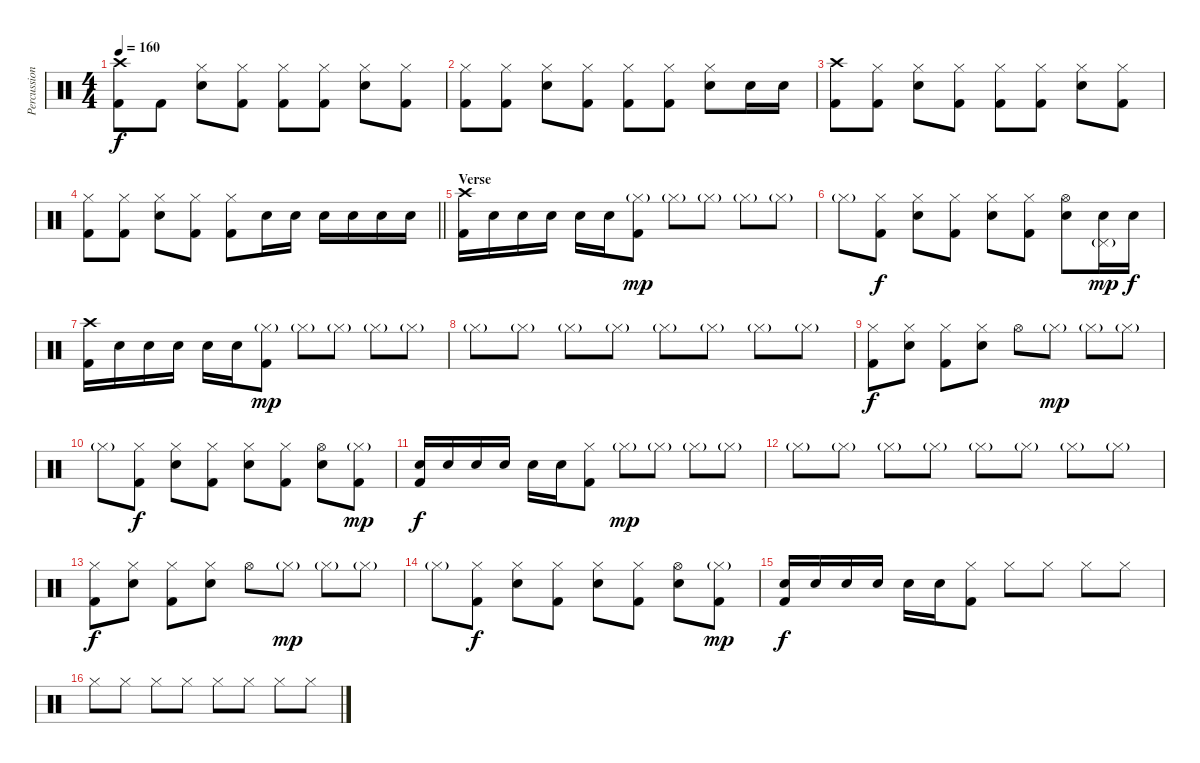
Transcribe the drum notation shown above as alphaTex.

\track ("Percussion" "Percussion") {instrument percussion}
\staff {score}
\articulation defaults
\ts (4 4)
\tempo 160
\clef neutral
\ks c
("Crash high (hit)" "Kick (hit) 2").8{dy f} "Kick (hit) 2".8 ("Hi-Hat (closed)" "Electric Snare (hit)").8 ("Hi-Hat (closed)" "Kick (hit) 2").8 ("Hi-Hat (closed)" "Kick (hit) 2").8 ("Hi-Hat (closed)" "Kick (hit) 2").8 ("Hi-Hat (closed)" "Electric Snare (hit)").8 ("Hi-Hat (closed)" "Kick (hit) 2").8 |
("Hi-Hat (closed)" "Kick (hit) 2").8 ("Hi-Hat (closed)" "Kick (hit) 2").8 ("Hi-Hat (closed)" "Electric Snare (hit)").8 ("Hi-Hat (closed)" "Kick (hit) 2").8 ("Hi-Hat (closed)" "Kick (hit) 2").8 ("Hi-Hat (closed)" "Kick (hit) 2").8 ("Hi-Hat (closed)" "Electric Snare (hit)").8 "Electric Snare (hit)".16 "Electric Snare (hit)".16 |
("Crash high (hit)" "Kick (hit) 2").8 ("Hi-Hat (closed)" "Kick (hit) 2").8 ("Hi-Hat (closed)" "Electric Snare (hit)").8 ("Hi-Hat (closed)" "Kick (hit) 2").8 ("Hi-Hat (closed)" "Kick (hit) 2").8 ("Hi-Hat (closed)" "Kick (hit) 2").8 ("Hi-Hat (closed)" "Electric Snare (hit)").8 ("Hi-Hat (closed)" "Kick (hit) 2").8 |
\barLineRight lightlight
("Hi-Hat (closed)" "Kick (hit) 2").8 ("Hi-Hat (closed)" "Kick (hit) 2").8 ("Hi-Hat (closed)" "Electric Snare (hit)").8 ("Hi-Hat (closed)" "Kick (hit) 2").8 ("Hi-Hat (closed)" "Kick (hit) 2").8 "Electric Snare (hit)".16 "Electric Snare (hit)".16 "Electric Snare (hit)".16 "Electric Snare (hit)".16 "Electric Snare (hit)".16 "Electric Snare (hit)".16 |
\section ("" "Verse")
("Crash high (hit)" "Kick (hit) 2").16 "Electric Snare (hit)".16 "Electric Snare (hit)".16 "Electric Snare (hit)".16 "Electric Snare (hit)".16 "Electric Snare (hit)".16 ("Hi-Hat (closed)"{g} "Kick (hit) 2").8{dy mp} "Hi-Hat (closed)"{g}.8 "Hi-Hat (closed)"{g}.8 "Hi-Hat (closed)"{g}.8 "Hi-Hat (closed)"{g}.8 |
"Hi-Hat (closed)"{g}.8 ("Hi-Hat (closed)" "Kick (hit) 2").8{dy f} ("Hi-Hat (closed)" "Electric Snare (hit)").8 ("Hi-Hat (closed)" "Kick (hit) 2").8 ("Hi-Hat (closed)" "Electric Snare (hit)").8 ("Hi-Hat (closed)" "Kick (hit) 2").8 ("Hi-Hat (open)" "Electric Snare (hit)").8 ("Pedal Hi-Hat (hit)"{g} "Electric Snare (hit)").16{dy mp} "Electric Snare (hit)".16{dy f} |
("Crash high (hit)" "Kick (hit) 2").16 "Electric Snare (hit)".16 "Electric Snare (hit)".16 "Electric Snare (hit)".16 "Electric Snare (hit)".16 "Electric Snare (hit)".16 ("Hi-Hat (closed)"{g} "Kick (hit) 2").8{dy mp} "Hi-Hat (closed)"{g}.8 "Hi-Hat (closed)"{g}.8 "Hi-Hat (closed)"{g}.8 "Hi-Hat (closed)"{g}.8 |
"Hi-Hat (closed)"{g}.8 "Hi-Hat (closed)"{g}.8 "Hi-Hat (closed)"{g}.8 "Hi-Hat (closed)"{g}.8 "Hi-Hat (closed)"{g}.8 "Hi-Hat (closed)"{g}.8 "Hi-Hat (closed)"{g}.8 "Hi-Hat (closed)"{g}.8 |
("Hi-Hat (closed)" "Kick (hit) 2").8{dy f} ("Hi-Hat (closed)" "Electric Snare (hit)").8 ("Hi-Hat (closed)" "Kick (hit) 2").8 ("Hi-Hat (closed)" "Electric Snare (hit)").8 "Hi-Hat (open)".8 "Hi-Hat (closed)"{g}.8{dy mp} "Hi-Hat (closed)"{g}.8 "Hi-Hat (closed)"{g}.8 |
"Hi-Hat (closed)"{g}.8 ("Hi-Hat (closed)" "Kick (hit) 2").8{dy f} ("Hi-Hat (closed)" "Electric Snare (hit)").8 ("Hi-Hat (closed)" "Kick (hit) 2").8 ("Hi-Hat (closed)" "Electric Snare (hit)").8 ("Hi-Hat (closed)" "Kick (hit) 2").8 ("Hi-Hat (open)" "Electric Snare (hit)").8 ("Hi-Hat (closed)"{g} "Kick (hit) 2").8{dy mp} |
("Electric Snare (hit)" "Kick (hit) 2").16{dy f} "Electric Snare (hit)".16 "Electric Snare (hit)".16 "Electric Snare (hit)".16 "Electric Snare (hit)".16 "Electric Snare (hit)".16 ("Hi-Hat (closed)" "Kick (hit) 2").8 "Hi-Hat (closed)"{g}.8{dy mp} "Hi-Hat (closed)"{g}.8 "Hi-Hat (closed)"{g}.8 "Hi-Hat (closed)"{g}.8 |
"Hi-Hat (closed)"{g}.8 "Hi-Hat (closed)"{g}.8 "Hi-Hat (closed)"{g}.8 "Hi-Hat (closed)"{g}.8 "Hi-Hat (closed)"{g}.8 "Hi-Hat (closed)"{g}.8 "Hi-Hat (closed)"{g}.8 "Hi-Hat (closed)"{g}.8 |
("Hi-Hat (closed)" "Kick (hit) 2").8{dy f} ("Hi-Hat (closed)" "Electric Snare (hit)").8 ("Hi-Hat (closed)" "Kick (hit) 2").8 ("Hi-Hat (closed)" "Electric Snare (hit)").8 "Hi-Hat (open)".8 "Hi-Hat (closed)"{g}.8{dy mp} "Hi-Hat (closed)"{g}.8 "Hi-Hat (closed)"{g}.8 |
"Hi-Hat (closed)"{g}.8 ("Hi-Hat (closed)" "Kick (hit) 2").8{dy f} ("Hi-Hat (closed)" "Electric Snare (hit)").8 ("Hi-Hat (closed)" "Kick (hit) 2").8 ("Hi-Hat (closed)" "Electric Snare (hit)").8 ("Hi-Hat (closed)" "Kick (hit) 2").8 ("Hi-Hat (open)" "Electric Snare (hit)").8 ("Hi-Hat (closed)"{g} "Kick (hit) 2").8{dy mp} |
("Electric Snare (hit)" "Kick (hit) 2").16{dy f} "Electric Snare (hit)".16 "Electric Snare (hit)".16 "Electric Snare (hit)".16 "Electric Snare (hit)".16 "Electric Snare (hit)".16 ("Hi-Hat (closed)" "Kick (hit) 2").8 "Hi-Hat (closed)".8 "Hi-Hat (closed)".8 "Hi-Hat (closed)".8 "Hi-Hat (closed)".8 |
"Hi-Hat (closed)".8 "Hi-Hat (closed)".8 "Hi-Hat (closed)".8 "Hi-Hat (closed)".8 "Hi-Hat (closed)".8 "Hi-Hat (closed)".8 "Hi-Hat (closed)".8 "Hi-Hat (closed)".8
